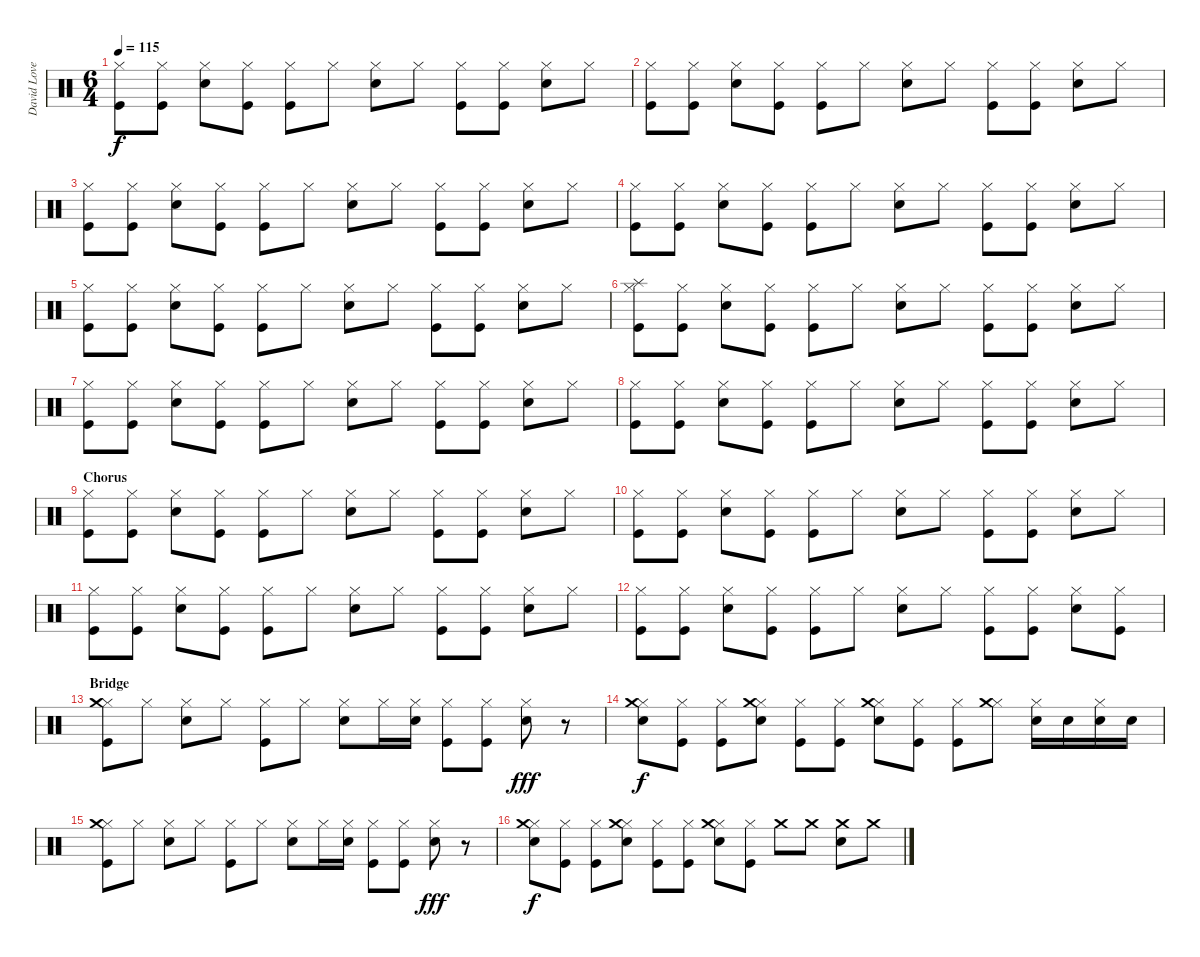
\track ("David Lovering" "David Love") {instrument percussion}
\staff {score}
\articulation defaults
\ts (6 4)
\tempo 115
\clef neutral
\ks c
("Hi-Hat (closed)" "Kick (hit)").8{dy f} ("Hi-Hat (closed)" "Kick (hit)").8 ("Hi-Hat (closed)" "Snare (hit) 2").8 ("Hi-Hat (closed)" "Kick (hit)").8 ("Hi-Hat (closed)" "Kick (hit)").8 "Hi-Hat (closed)".8 ("Hi-Hat (closed)" "Snare (hit) 2").8 "Hi-Hat (closed)".8 ("Hi-Hat (closed)" "Kick (hit)").8 ("Hi-Hat (closed)" "Kick (hit)").8 ("Hi-Hat (closed)" "Snare (hit) 2").8 "Hi-Hat (closed)".8 |
("Hi-Hat (closed)" "Kick (hit)").8 ("Hi-Hat (closed)" "Kick (hit)").8 ("Hi-Hat (closed)" "Snare (hit) 2").8 ("Hi-Hat (closed)" "Kick (hit)").8 ("Hi-Hat (closed)" "Kick (hit)").8 "Hi-Hat (closed)".8 ("Hi-Hat (closed)" "Snare (hit) 2").8 "Hi-Hat (closed)".8 ("Hi-Hat (closed)" "Kick (hit)").8 ("Hi-Hat (closed)" "Kick (hit)").8 ("Hi-Hat (closed)" "Snare (hit) 2").8 "Hi-Hat (closed)".8 |
("Hi-Hat (closed)" "Kick (hit)").8 ("Hi-Hat (closed)" "Kick (hit)").8 ("Hi-Hat (closed)" "Snare (hit) 2").8 ("Hi-Hat (closed)" "Kick (hit)").8 ("Hi-Hat (closed)" "Kick (hit)").8 "Hi-Hat (closed)".8 ("Hi-Hat (closed)" "Snare (hit) 2").8 "Hi-Hat (closed)".8 ("Hi-Hat (closed)" "Kick (hit)").8 ("Hi-Hat (closed)" "Kick (hit)").8 ("Hi-Hat (closed)" "Snare (hit) 2").8 "Hi-Hat (closed)".8 |
("Hi-Hat (closed)" "Kick (hit)").8 ("Hi-Hat (closed)" "Kick (hit)").8 ("Hi-Hat (closed)" "Snare (hit) 2").8 ("Hi-Hat (closed)" "Kick (hit)").8 ("Hi-Hat (closed)" "Kick (hit)").8 "Hi-Hat (closed)".8 ("Hi-Hat (closed)" "Snare (hit) 2").8 "Hi-Hat (closed)".8 ("Hi-Hat (closed)" "Kick (hit)").8 ("Hi-Hat (closed)" "Kick (hit)").8 ("Hi-Hat (closed)" "Snare (hit) 2").8 "Hi-Hat (closed)".8 |
\section ("" "")
("Hi-Hat (closed)" "Kick (hit)").8 ("Hi-Hat (closed)" "Kick (hit)").8 ("Hi-Hat (closed)" "Snare (hit) 2").8 ("Hi-Hat (closed)" "Kick (hit)").8 ("Hi-Hat (closed)" "Kick (hit)").8 "Hi-Hat (closed)".8 ("Hi-Hat (closed)" "Snare (hit) 2").8 "Hi-Hat (closed)".8 ("Hi-Hat (closed)" "Kick (hit)").8 ("Hi-Hat (closed)" "Kick (hit)").8 ("Hi-Hat (closed)" "Snare (hit) 2").8 "Hi-Hat (closed)".8 |
("Hi-Hat (closed)" "Splash (hit)" "Kick (hit)").8 ("Hi-Hat (closed)" "Kick (hit)").8 ("Hi-Hat (closed)" "Snare (hit) 2").8 ("Hi-Hat (closed)" "Kick (hit)").8 ("Hi-Hat (closed)" "Kick (hit)").8 "Hi-Hat (closed)".8 ("Hi-Hat (closed)" "Snare (hit) 2").8 "Hi-Hat (closed)".8 ("Hi-Hat (closed)" "Kick (hit)").8 ("Hi-Hat (closed)" "Kick (hit)").8 ("Hi-Hat (closed)" "Snare (hit) 2").8 "Hi-Hat (closed)".8 |
("Hi-Hat (closed)" "Kick (hit)").8 ("Hi-Hat (closed)" "Kick (hit)").8 ("Hi-Hat (closed)" "Snare (hit) 2").8 ("Hi-Hat (closed)" "Kick (hit)").8 ("Hi-Hat (closed)" "Kick (hit)").8 "Hi-Hat (closed)".8 ("Hi-Hat (closed)" "Snare (hit) 2").8 "Hi-Hat (closed)".8 ("Hi-Hat (closed)" "Kick (hit)").8 ("Hi-Hat (closed)" "Kick (hit)").8 ("Hi-Hat (closed)" "Snare (hit) 2").8 "Hi-Hat (closed)".8 |
("Hi-Hat (closed)" "Kick (hit)").8 ("Hi-Hat (closed)" "Kick (hit)").8 ("Hi-Hat (closed)" "Snare (hit) 2").8 ("Hi-Hat (closed)" "Kick (hit)").8 ("Hi-Hat (closed)" "Kick (hit)").8 "Hi-Hat (closed)".8 ("Hi-Hat (closed)" "Snare (hit) 2").8 "Hi-Hat (closed)".8 ("Hi-Hat (closed)" "Kick (hit)").8 ("Hi-Hat (closed)" "Kick (hit)").8 ("Hi-Hat (closed)" "Snare (hit) 2").8 "Hi-Hat (closed)".8 |
\section ("" "Chorus")
("Hi-Hat (closed)" "Kick (hit)").8 ("Hi-Hat (closed)" "Kick (hit)").8 ("Hi-Hat (closed)" "Snare (hit) 2").8 ("Hi-Hat (closed)" "Kick (hit)").8 ("Hi-Hat (closed)" "Kick (hit)").8 "Hi-Hat (closed)".8 ("Hi-Hat (closed)" "Snare (hit) 2").8 "Hi-Hat (closed)".8 ("Hi-Hat (closed)" "Kick (hit)").8 ("Hi-Hat (closed)" "Kick (hit)").8 ("Hi-Hat (closed)" "Snare (hit) 2").8 "Hi-Hat (closed)".8 |
("Hi-Hat (closed)" "Kick (hit)").8 ("Hi-Hat (closed)" "Kick (hit)").8 ("Hi-Hat (closed)" "Snare (hit) 2").8 ("Hi-Hat (closed)" "Kick (hit)").8 ("Hi-Hat (closed)" "Kick (hit)").8 "Hi-Hat (closed)".8 ("Hi-Hat (closed)" "Snare (hit) 2").8 "Hi-Hat (closed)".8 ("Hi-Hat (closed)" "Kick (hit)").8 ("Hi-Hat (closed)" "Kick (hit)").8 ("Hi-Hat (closed)" "Snare (hit) 2").8 "Hi-Hat (closed)".8 |
("Hi-Hat (closed)" "Kick (hit)").8 ("Hi-Hat (closed)" "Kick (hit)").8 ("Hi-Hat (closed)" "Snare (hit) 2").8 ("Hi-Hat (closed)" "Kick (hit)").8 ("Hi-Hat (closed)" "Kick (hit)").8 "Hi-Hat (closed)".8 ("Hi-Hat (closed)" "Snare (hit) 2").8 "Hi-Hat (closed)".8 ("Hi-Hat (closed)" "Kick (hit)").8 ("Hi-Hat (closed)" "Kick (hit)").8 ("Hi-Hat (closed)" "Snare (hit) 2").8 "Hi-Hat (closed)".8 |
("Hi-Hat (closed)" "Kick (hit)").8 ("Hi-Hat (closed)" "Kick (hit)").8 ("Hi-Hat (closed)" "Snare (hit) 2").8 ("Hi-Hat (closed)" "Kick (hit)").8 ("Hi-Hat (closed)" "Kick (hit)").8 "Hi-Hat (closed)".8 ("Hi-Hat (closed)" "Snare (hit) 2").8 "Hi-Hat (closed)".8 ("Hi-Hat (closed)" "Kick (hit)").8 ("Hi-Hat (closed)" "Kick (hit)").8 ("Hi-Hat (closed)" "Snare (hit) 2").8 ("Hi-Hat (closed)" "Kick (hit)").8 |
\section ("" "Bridge")
("Hi-Hat (closed)" "Crash medium (hit)" "Kick (hit)").8 "Hi-Hat (closed)".8 ("Hi-Hat (closed)" "Snare (hit) 2").8 "Hi-Hat (closed)".8 ("Hi-Hat (closed)" "Kick (hit)").8 "Hi-Hat (closed)".8 ("Hi-Hat (closed)" "Snare (hit) 2").8 "Hi-Hat (closed)".16 ("Hi-Hat (closed)" "Snare (hit) 2").16 ("Hi-Hat (closed)" "Kick (hit)").8 ("Hi-Hat (closed)" "Kick (hit)").8 ("Hi-Hat (closed)" "Snare (hit) 2").8{dy fff} r.8 |
("Hi-Hat (closed)" "Crash medium (hit)" "Snare (hit) 2").8{dy f} ("Hi-Hat (closed)" "Kick (hit)").8 ("Hi-Hat (closed)" "Kick (hit)").8 ("Hi-Hat (closed)" "Crash medium (hit)" "Snare (hit) 2").8 ("Hi-Hat (closed)" "Kick (hit)").8 ("Hi-Hat (closed)" "Kick (hit)").8 ("Hi-Hat (closed)" "Crash medium (hit)" "Snare (hit) 2").8 ("Hi-Hat (closed)" "Kick (hit)").8 ("Hi-Hat (closed)" "Kick (hit)").8 ("Hi-Hat (closed)" "Crash medium (hit)").8 ("Hi-Hat (closed)" "Snare (hit) 2").16 "Snare (hit) 2".16 ("Hi-Hat (closed)" "Snare (hit) 2").16 "Snare (hit) 2".16 |
("Hi-Hat (closed)" "Crash medium (hit)" "Kick (hit)").8 "Hi-Hat (closed)".8 ("Hi-Hat (closed)" "Snare (hit) 2").8 "Hi-Hat (closed)".8 ("Hi-Hat (closed)" "Kick (hit)").8 "Hi-Hat (closed)".8 ("Hi-Hat (closed)" "Snare (hit) 2").8 "Hi-Hat (closed)".16 ("Hi-Hat (closed)" "Snare (hit) 2").16 ("Hi-Hat (closed)" "Kick (hit)").8 ("Hi-Hat (closed)" "Kick (hit)").8 ("Hi-Hat (closed)" "Snare (hit) 2").8{dy fff} r.8 |
("Hi-Hat (closed)" "Crash medium (hit)" "Snare (hit) 2").8{dy f} ("Hi-Hat (closed)" "Kick (hit)").8 ("Hi-Hat (closed)" "Kick (hit)").8 ("Hi-Hat (closed)" "Crash medium (hit)" "Snare (hit) 2").8 ("Hi-Hat (closed)" "Kick (hit)").8 ("Hi-Hat (closed)" "Kick (hit)").8 ("Hi-Hat (closed)" "Crash medium (hit)" "Snare (hit) 2").8 ("Hi-Hat (closed)" "Kick (hit)").8 "Crash medium (hit)".8 "Crash medium (hit)".8 ("Crash medium (hit)" "Snare (hit) 2").8 "Crash medium (hit)".8
